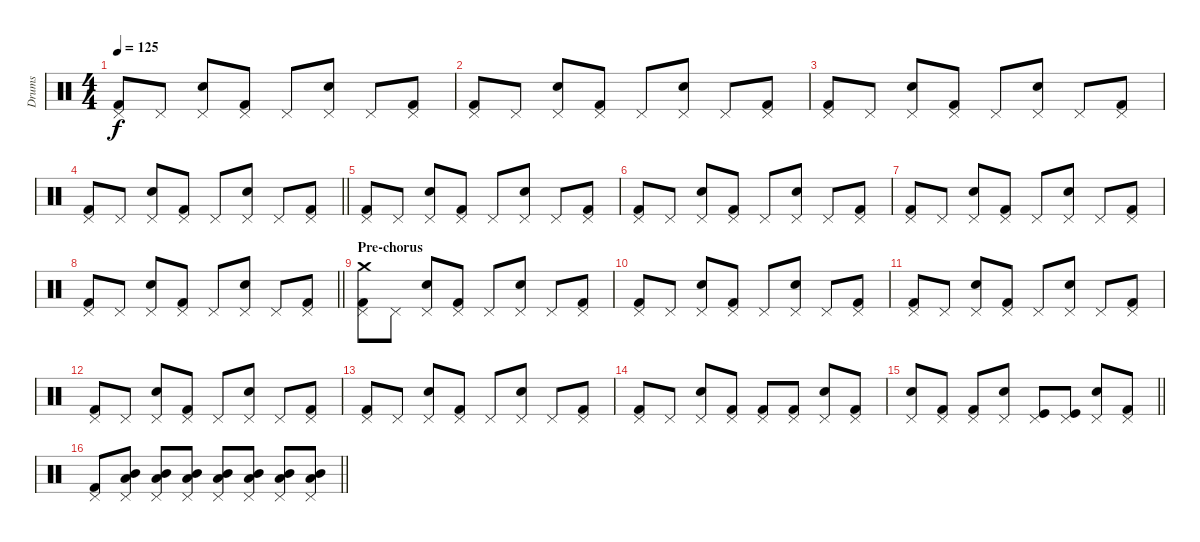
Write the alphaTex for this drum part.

\track ("Drums" "Drums") {instrument percussion}
\staff {score}
\articulation defaults
\ts (4 4)
\tempo 125
\clef neutral
\ks c
("Kick (hit) 2" "Pedal Hi-Hat (hit)").8{dy f} "Pedal Hi-Hat (hit)".8 ("Electric Snare (hit)" "Pedal Hi-Hat (hit)").8 ("Kick (hit) 2" "Pedal Hi-Hat (hit)").8 "Pedal Hi-Hat (hit)".8 ("Electric Snare (hit)" "Pedal Hi-Hat (hit)").8 "Pedal Hi-Hat (hit)".8 ("Kick (hit) 2" "Pedal Hi-Hat (hit)").8 |
("Kick (hit) 2" "Pedal Hi-Hat (hit)").8 "Pedal Hi-Hat (hit)".8 ("Electric Snare (hit)" "Pedal Hi-Hat (hit)").8 ("Kick (hit) 2" "Pedal Hi-Hat (hit)").8 "Pedal Hi-Hat (hit)".8 ("Electric Snare (hit)" "Pedal Hi-Hat (hit)").8 "Pedal Hi-Hat (hit)".8 ("Kick (hit) 2" "Pedal Hi-Hat (hit)").8 |
("Kick (hit) 2" "Pedal Hi-Hat (hit)").8 "Pedal Hi-Hat (hit)".8 ("Electric Snare (hit)" "Pedal Hi-Hat (hit)").8 ("Kick (hit) 2" "Pedal Hi-Hat (hit)").8 "Pedal Hi-Hat (hit)".8 ("Electric Snare (hit)" "Pedal Hi-Hat (hit)").8 "Pedal Hi-Hat (hit)".8 ("Kick (hit) 2" "Pedal Hi-Hat (hit)").8 |
\barLineRight lightlight
("Kick (hit) 2" "Pedal Hi-Hat (hit)").8 "Pedal Hi-Hat (hit)".8 ("Electric Snare (hit)" "Pedal Hi-Hat (hit)").8 ("Kick (hit) 2" "Pedal Hi-Hat (hit)").8 "Pedal Hi-Hat (hit)".8 ("Electric Snare (hit)" "Pedal Hi-Hat (hit)").8 "Pedal Hi-Hat (hit)".8 ("Kick (hit) 2" "Pedal Hi-Hat (hit)").8 |
("Kick (hit) 2" "Pedal Hi-Hat (hit)").8 "Pedal Hi-Hat (hit)".8 ("Electric Snare (hit)" "Pedal Hi-Hat (hit)").8 ("Kick (hit) 2" "Pedal Hi-Hat (hit)").8 "Pedal Hi-Hat (hit)".8 ("Electric Snare (hit)" "Pedal Hi-Hat (hit)").8 "Pedal Hi-Hat (hit)".8 ("Kick (hit) 2" "Pedal Hi-Hat (hit)").8 |
("Kick (hit) 2" "Pedal Hi-Hat (hit)").8 "Pedal Hi-Hat (hit)".8 ("Electric Snare (hit)" "Pedal Hi-Hat (hit)").8 ("Kick (hit) 2" "Pedal Hi-Hat (hit)").8 "Pedal Hi-Hat (hit)".8 ("Electric Snare (hit)" "Pedal Hi-Hat (hit)").8 "Pedal Hi-Hat (hit)".8 ("Kick (hit) 2" "Pedal Hi-Hat (hit)").8 |
("Kick (hit) 2" "Pedal Hi-Hat (hit)").8 "Pedal Hi-Hat (hit)".8 ("Electric Snare (hit)" "Pedal Hi-Hat (hit)").8 ("Kick (hit) 2" "Pedal Hi-Hat (hit)").8 "Pedal Hi-Hat (hit)".8 ("Electric Snare (hit)" "Pedal Hi-Hat (hit)").8 "Pedal Hi-Hat (hit)".8 ("Kick (hit) 2" "Pedal Hi-Hat (hit)").8 |
\barLineRight lightlight
("Kick (hit) 2" "Pedal Hi-Hat (hit)").8 "Pedal Hi-Hat (hit)".8 ("Electric Snare (hit)" "Pedal Hi-Hat (hit)").8 ("Kick (hit) 2" "Pedal Hi-Hat (hit)").8 "Pedal Hi-Hat (hit)".8 ("Electric Snare (hit)" "Pedal Hi-Hat (hit)").8 "Pedal Hi-Hat (hit)".8 ("Kick (hit) 2" "Pedal Hi-Hat (hit)").8 |
\section ("" "Pre-chorus")
("Kick (hit) 2" "Crash medium (hit)" "Pedal Hi-Hat (hit)").8 "Pedal Hi-Hat (hit)".8 ("Electric Snare (hit)" "Pedal Hi-Hat (hit)").8 ("Kick (hit) 2" "Pedal Hi-Hat (hit)").8 "Pedal Hi-Hat (hit)".8 ("Electric Snare (hit)" "Pedal Hi-Hat (hit)").8 "Pedal Hi-Hat (hit)".8 ("Kick (hit) 2" "Pedal Hi-Hat (hit)").8 |
("Kick (hit) 2" "Pedal Hi-Hat (hit)").8 "Pedal Hi-Hat (hit)".8 ("Electric Snare (hit)" "Pedal Hi-Hat (hit)").8 ("Kick (hit) 2" "Pedal Hi-Hat (hit)").8 "Pedal Hi-Hat (hit)".8 ("Electric Snare (hit)" "Pedal Hi-Hat (hit)").8 "Pedal Hi-Hat (hit)".8 ("Kick (hit) 2" "Pedal Hi-Hat (hit)").8 |
("Kick (hit) 2" "Pedal Hi-Hat (hit)").8 "Pedal Hi-Hat (hit)".8 ("Electric Snare (hit)" "Pedal Hi-Hat (hit)").8 ("Kick (hit) 2" "Pedal Hi-Hat (hit)").8 "Pedal Hi-Hat (hit)".8 ("Electric Snare (hit)" "Pedal Hi-Hat (hit)").8 "Pedal Hi-Hat (hit)".8 ("Kick (hit) 2" "Pedal Hi-Hat (hit)").8 |
("Kick (hit) 2" "Pedal Hi-Hat (hit)").8 "Pedal Hi-Hat (hit)".8 ("Electric Snare (hit)" "Pedal Hi-Hat (hit)").8 ("Kick (hit) 2" "Pedal Hi-Hat (hit)").8 "Pedal Hi-Hat (hit)".8 ("Electric Snare (hit)" "Pedal Hi-Hat (hit)").8 "Pedal Hi-Hat (hit)".8 ("Kick (hit) 2" "Pedal Hi-Hat (hit)").8 |
("Kick (hit) 2" "Pedal Hi-Hat (hit)").8 "Pedal Hi-Hat (hit)".8 ("Electric Snare (hit)" "Pedal Hi-Hat (hit)").8 ("Kick (hit) 2" "Pedal Hi-Hat (hit)").8 "Pedal Hi-Hat (hit)".8 ("Electric Snare (hit)" "Pedal Hi-Hat (hit)").8 "Pedal Hi-Hat (hit)".8 ("Kick (hit) 2" "Pedal Hi-Hat (hit)").8 |
("Kick (hit) 2" "Pedal Hi-Hat (hit)").8 "Pedal Hi-Hat (hit)".8 ("Electric Snare (hit)" "Pedal Hi-Hat (hit)").8 ("Kick (hit) 2" "Pedal Hi-Hat (hit)").8 ("Kick (hit) 2" "Pedal Hi-Hat (hit)").8 ("Kick (hit) 2" "Pedal Hi-Hat (hit)").8 ("Electric Snare (hit)" "Pedal Hi-Hat (hit)").8 ("Kick (hit) 2" "Pedal Hi-Hat (hit)").8 |
\barLineRight lightlight
("Electric Snare (hit)" "Pedal Hi-Hat (hit)").8 ("Kick (hit) 2" "Pedal Hi-Hat (hit)").8 ("Kick (hit) 2" "Pedal Hi-Hat (hit)").8 ("Electric Snare (hit)" "Pedal Hi-Hat (hit)").8 ("Kick (hit)" "Pedal Hi-Hat (hit)").8 ("Kick (hit)" "Pedal Hi-Hat (hit)").8 ("Electric Snare (hit)" "Pedal Hi-Hat (hit)").8 ("Kick (hit) 2" "Pedal Hi-Hat (hit)").8 |
\barLineRight lightlight
("Kick (hit) 2" "Pedal Hi-Hat (hit)").8 ("Mid Tom (hit)" "Low Tom (hit)" "Pedal Hi-Hat (hit)").8 ("Mid Tom (hit)" "Low Tom (hit)" "Pedal Hi-Hat (hit)").8 ("Mid Tom (hit)" "Low Tom (hit)" "Pedal Hi-Hat (hit)").8 ("Mid Tom (hit)" "Low Tom (hit)" "Pedal Hi-Hat (hit)").8 ("Low Tom (hit)" "Mid Tom (hit)" "Pedal Hi-Hat (hit)").8 ("Low Tom (hit)" "Mid Tom (hit)" "Pedal Hi-Hat (hit)").8 ("Low Tom (hit)" "Mid Tom (hit)" "Pedal Hi-Hat (hit)").8
